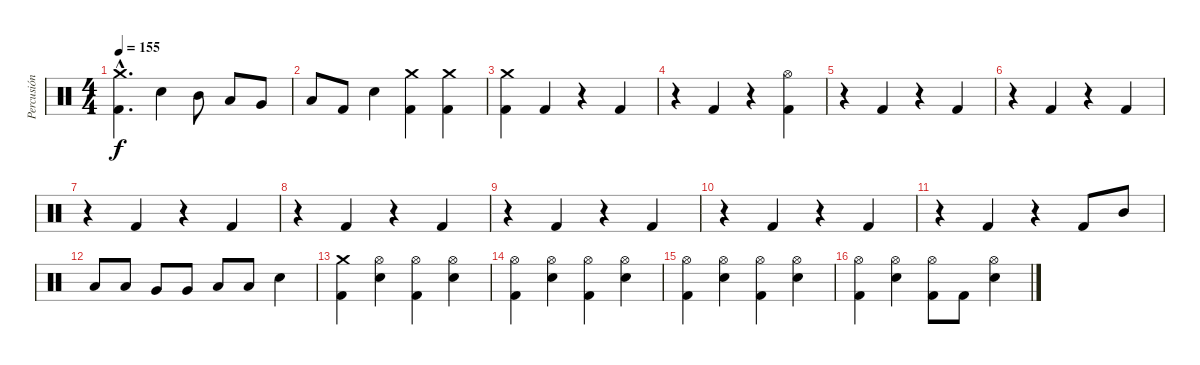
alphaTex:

\track ("Percusión" "Percusión") {instrument percussion}
\staff {score}
\articulation defaults
\ts (4 4)
\tempo 155
\clef neutral
\ks c
("Crash medium (hit)"{hac} "Kick (hit) 2"{hac}).4{d dy f} "Electric Snare (hit)".4 "Mid Tom (hit)".8 "Low Tom (hit)".8 "Very Low Tom (hit)".8 |
"Low Floor Tom (hit)".8 "Kick (hit) 2".8 "Electric Snare (hit)".4 ("Crash medium (hit)" "Kick (hit) 2").4 ("Crash medium (hit)" "Kick (hit) 2").4 |
("Crash medium (hit)" "Kick (hit) 2").4 "Kick (hit) 2".4 r.4 "Kick (hit) 2".4 |
r.4 "Kick (hit) 2".4 r.4 ("Hi-Hat (open)" "Kick (hit) 2").4 |
r.4 "Kick (hit) 2".4 r.4 "Kick (hit) 2".4 |
r.4 "Kick (hit) 2".4 r.4 "Kick (hit) 2".4 |
r.4 "Kick (hit) 2".4 r.4 "Kick (hit) 2".4 |
r.4 "Kick (hit) 2".4 r.4 "Kick (hit) 2".4 |
r.4 "Kick (hit) 2".4 r.4 "Kick (hit) 2".4 |
r.4 "Kick (hit) 2".4 r.4 "Kick (hit) 2".4 |
r.4 "Kick (hit) 2".4 r.4 "Kick (hit) 2".8 "Mid Tom (hit)".8 |
"Low Tom (hit)".8 "Low Tom (hit)".8 "Very Low Tom (hit)".8 "Very Low Tom (hit)".8 "Low Floor Tom (hit)".8 "Low Floor Tom (hit)".8 "Electric Snare (hit)".4 |
("Crash medium (hit)" "Kick (hit) 2").4 ("Hi-Hat (open)" "Electric Snare (hit)").4 ("Hi-Hat (open)" "Kick (hit) 2").4 ("Hi-Hat (open)" "Electric Snare (hit)").4 |
("Hi-Hat (open)" "Kick (hit) 2").4 ("Hi-Hat (open)" "Electric Snare (hit)").4 ("Hi-Hat (open)" "Kick (hit) 2").4 ("Hi-Hat (open)" "Electric Snare (hit)").4 |
("Hi-Hat (open)" "Kick (hit) 2").4 ("Hi-Hat (open)" "Electric Snare (hit)").4 ("Hi-Hat (open)" "Kick (hit) 2").4 ("Hi-Hat (open)" "Electric Snare (hit)").4 |
("Hi-Hat (open)" "Kick (hit) 2").4 ("Hi-Hat (open)" "Electric Snare (hit)").4 ("Hi-Hat (open)" "Kick (hit) 2").8 "Kick (hit) 2".8 ("Hi-Hat (open)" "Electric Snare (hit)").4
